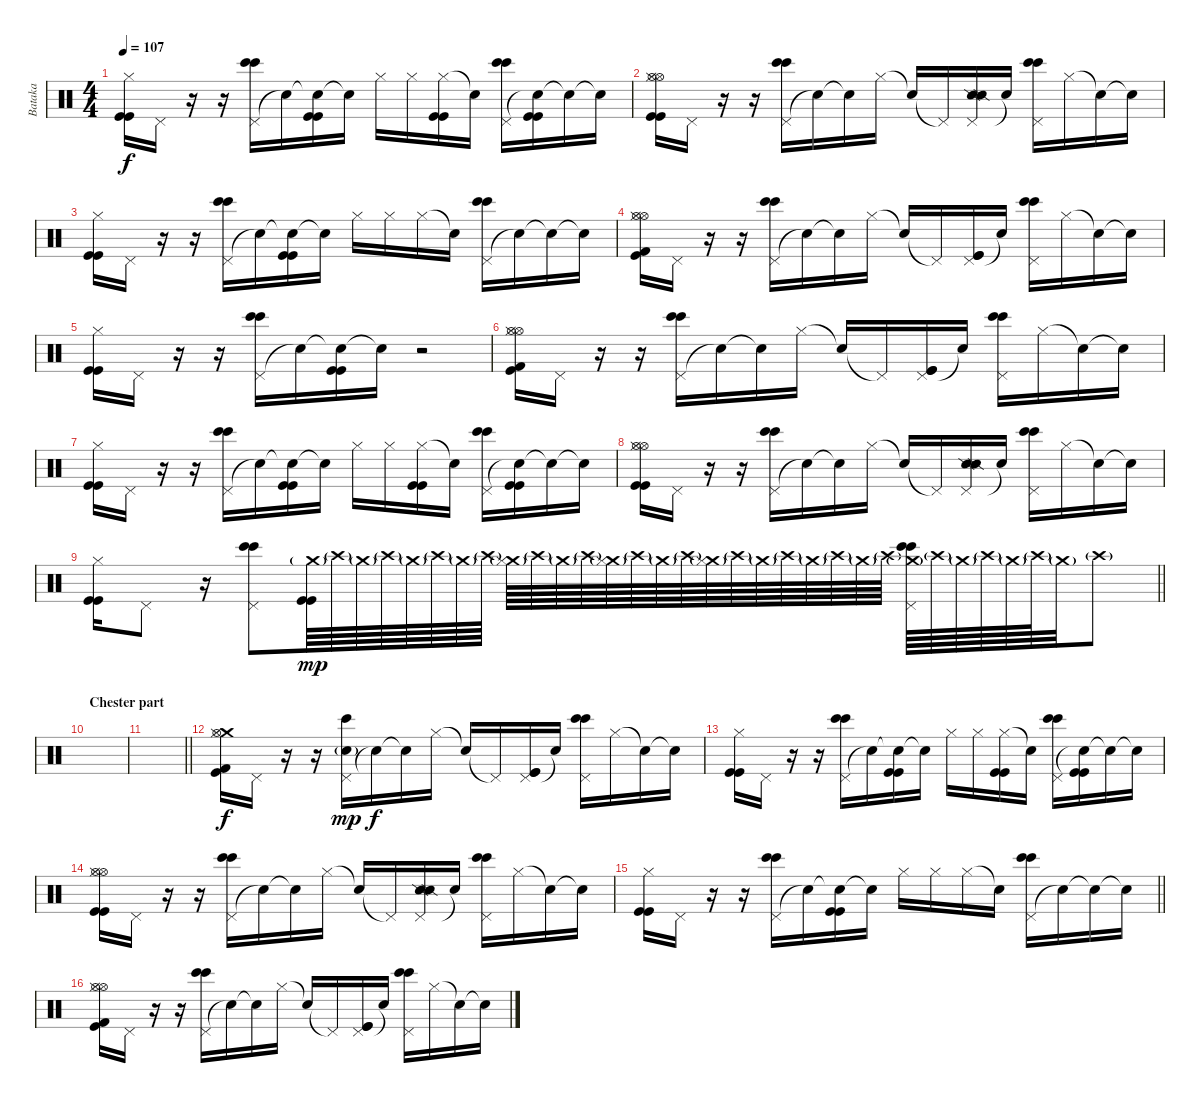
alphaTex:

\track ("Bataka" "Bataka") {instrument percussion}
\staff {score}
\articulation defaults
\ts (4 4)
\tempo 107
\clef neutral
\ks c
("Hi-Hat (closed)" "Kick (hit)" "Kick (hit)").16{dy f} "Pedal Hi-Hat (hit)".16 r.16 r.16 ("Pedal Hi-Hat (hit)" "Bongo High (hit)" "Bongo High (hit)").16 "Snare (hit)"{t}.16 ("Snare (hit)"{t} "Kick (hit)" "Kick (hit)").16 "Snare (hit)"{t}.16 "Hi-Hat (closed)".16 "Hi-Hat (closed)".16 ("Hi-Hat (closed)" "Kick (hit)" "Kick (hit)").16 "Snare (hit)"{t}.16 ("Pedal Hi-Hat (hit)" "Bongo High (hit)" "Bongo High (hit)").16 ("Snare (hit)"{t} "Kick (hit)" "Kick (hit)").16 "Snare (hit)"{t}.16 "Snare (hit)"{t}.16 |
("Hi-Hat (open)" "Hi-Hat (open)" "Hi-Hat (closed)" "Kick (hit)" "Kick (hit)").16 "Pedal Hi-Hat (hit)".16 r.16 r.16 ("Pedal Hi-Hat (hit)" "Bongo High (hit)" "Bongo High (hit)").16 "Snare (hit)"{t}.16 "Snare (hit)"{t}.16 "Hi-Hat (closed)".16 "Snare (hit)"{t}.16 "Pedal Hi-Hat (hit)"{t}.16 ("Pedal Hi-Hat (hit)" "Snare (side stick) 2" "Snare (side stick) 2").16 "Snare (hit)"{t}.16 ("Pedal Hi-Hat (hit)" "Bongo High (hit)" "Bongo High (hit)").16 "Hi-Hat (closed)".16 "Snare (hit)"{t}.16 "Snare (hit)"{t}.16 |
("Hi-Hat (closed)" "Kick (hit)" "Kick (hit)").16 "Pedal Hi-Hat (hit)".16 r.16 r.16 ("Pedal Hi-Hat (hit)" "Bongo High (hit)" "Bongo High (hit)").16 "Snare (hit)"{t}.16 ("Snare (hit)"{t} "Kick (hit)" "Kick (hit)").16 "Snare (hit)"{t}.16 "Hi-Hat (closed)".16 "Hi-Hat (closed)".16 "Hi-Hat (closed)".16 "Snare (hit)"{t}.16 ("Pedal Hi-Hat (hit)" "Bongo High (hit)" "Bongo High (hit)").16 "Snare (hit)"{t}.16 "Snare (hit)"{t}.16 "Snare (hit)"{t}.16 |
("Hi-Hat (open)" "Hi-Hat (open)" "Hi-Hat (closed)" "Kick (hit)" "Kick (hit) 2").16 "Pedal Hi-Hat (hit)".16 r.16 r.16 ("Pedal Hi-Hat (hit)" "Bongo High (hit)" "Bongo High (hit)").16 "Snare (hit)"{t}.16 "Snare (hit)"{t}.16 "Hi-Hat (closed)".16 "Snare (hit)"{t}.16 "Pedal Hi-Hat (hit)"{t}.16 ("Pedal Hi-Hat (hit)" "Kick (hit)" "Kick (hit)").16 "Snare (hit)"{t}.16 ("Pedal Hi-Hat (hit)" "Bongo High (hit)" "Bongo High (hit)").16 "Hi-Hat (closed)".16 "Snare (hit)"{t}.16 "Snare (hit)"{t}.16 |
("Hi-Hat (closed)" "Kick (hit)" "Kick (hit)").16 "Pedal Hi-Hat (hit)".16 r.16 r.16 ("Pedal Hi-Hat (hit)" "Bongo High (hit)" "Bongo High (hit)").16 "Snare (hit)"{t}.16 ("Snare (hit)"{t} "Kick (hit)" "Kick (hit)").16 "Snare (hit)"{t}.16 r.2 |
("Hi-Hat (open)" "Hi-Hat (open)" "Hi-Hat (closed)" "Kick (hit)" "Kick (hit) 2").16 "Pedal Hi-Hat (hit)".16 r.16 r.16 ("Pedal Hi-Hat (hit)" "Bongo High (hit)" "Bongo High (hit)").16 "Snare (hit)"{t}.16 "Snare (hit)"{t}.16 "Hi-Hat (closed)".16 "Snare (hit)"{t}.16 "Pedal Hi-Hat (hit)"{t}.16 ("Pedal Hi-Hat (hit)" "Kick (hit)" "Kick (hit)").16 "Snare (hit)"{t}.16 ("Pedal Hi-Hat (hit)" "Bongo High (hit)" "Bongo High (hit)").16 "Hi-Hat (closed)".16 "Snare (hit)"{t}.16 "Snare (hit)"{t}.16 |
("Hi-Hat (closed)" "Kick (hit)" "Kick (hit)").16 "Pedal Hi-Hat (hit)".16 r.16 r.16 ("Pedal Hi-Hat (hit)" "Bongo High (hit)" "Bongo High (hit)").16 "Snare (hit)"{t}.16 ("Snare (hit)"{t} "Kick (hit)" "Kick (hit)").16 "Snare (hit)"{t}.16 "Hi-Hat (closed)".16 "Hi-Hat (closed)".16 ("Hi-Hat (closed)" "Kick (hit)" "Kick (hit)").16 "Snare (hit)"{t}.16 ("Pedal Hi-Hat (hit)" "Bongo High (hit)" "Bongo High (hit)").16 ("Snare (hit)"{t} "Kick (hit)" "Kick (hit)").16 "Snare (hit)"{t}.16 "Snare (hit)"{t}.16 |
("Hi-Hat (open)" "Hi-Hat (open)" "Hi-Hat (closed)" "Kick (hit)" "Kick (hit)").16 "Pedal Hi-Hat (hit)".16 r.16 r.16 ("Pedal Hi-Hat (hit)" "Bongo High (hit)" "Bongo High (hit)").16 "Snare (hit)"{t}.16 "Snare (hit)"{t}.16 "Hi-Hat (closed)".16 "Snare (hit)"{t}.16 "Pedal Hi-Hat (hit)"{t}.16 ("Pedal Hi-Hat (hit)" "Snare (side stick) 2" "Snare (side stick) 2").16 "Snare (hit)"{t}.16 ("Pedal Hi-Hat (hit)" "Bongo High (hit)" "Bongo High (hit)").16 "Hi-Hat (closed)".16 "Snare (hit)"{t}.16 "Snare (hit)"{t}.16 |
\barLineRight lightlight
("Hi-Hat (closed)" "Kick (hit)" "Kick (hit)").16 "Pedal Hi-Hat (hit)".8 r.16 ("Pedal Hi-Hat (hit)" "Bongo High (hit)" "Bongo High (hit)").8 ("Crash medium (hit)"{g} "Kick (hit)" "Kick (hit)").64{dy mp} "Crash high (hit)"{g}.64 "Crash medium (hit)"{g}.64 "Crash high (hit)"{g}.64 "Crash medium (hit)"{g}.64 "Crash high (hit)"{g}.64 "Crash medium (hit)"{g}.64 "Crash high (hit)"{g}.64 ("Crash medium (hit)"{g} "Hi-Hat (closed)").64 "Crash high (hit)"{g}.64 "Crash medium (hit)"{g}.64 "Crash high (hit)"{g}.64 ("Crash medium (hit)"{g} "Hi-Hat (closed)").64 "Crash high (hit)"{g}.64 "Crash medium (hit)"{g}.64 "Crash high (hit)"{g}.64 ("Crash medium (hit)"{g} "Hi-Hat (closed)").64 "Crash high (hit)"{g}.64 "Crash medium (hit)"{g}.64 "Crash high (hit)"{g}.64 "Crash medium (hit)"{g}.64 "Crash high (hit)"{g}.64 "Crash medium (hit)"{g}.64 "Crash high (hit)"{g}.64 ("Crash medium (hit)"{g} "Pedal Hi-Hat (hit)" "Bongo High (hit)" "Bongo High (hit)").64 "Crash high (hit)"{g}.64 "Crash medium (hit)"{g}.64 "Crash high (hit)"{g}.64 "Crash medium (hit)"{g}.64 "Crash high (hit)"{g}.64 "Crash medium (hit)"{g}.32 "Crash high (hit)"{g}.8 |
\section ("" "Chester part")
|
\barLineRight lightlight
|
("Crash medium (hit)" "Hi-Hat (open)" "Hi-Hat (closed)" "Kick (hit)" "Kick (hit) 2").16{dy f} "Pedal Hi-Hat (hit)".16 r.16 r.16 ("Pedal Hi-Hat (hit)" "Bongo High (hit)" "Electric Snare (hit)"{g}).16{dy mp} "Snare (hit)"{t}.16{dy f} "Snare (hit)"{t}.16 "Hi-Hat (closed)".16 "Snare (hit)"{t}.16 "Pedal Hi-Hat (hit)"{t}.16 ("Pedal Hi-Hat (hit)" "Kick (hit)" "Kick (hit)").16 "Snare (hit)"{t}.16 ("Pedal Hi-Hat (hit)" "Bongo High (hit)" "Bongo High (hit)").16 "Hi-Hat (closed)".16 "Snare (hit)"{t}.16 "Snare (hit)"{t}.16 |
("Hi-Hat (closed)" "Kick (hit)" "Kick (hit)").16 "Pedal Hi-Hat (hit)".16 r.16 r.16 ("Pedal Hi-Hat (hit)" "Bongo High (hit)" "Bongo High (hit)").16 "Snare (hit)"{t}.16 ("Snare (hit)"{t} "Kick (hit)" "Kick (hit)").16 "Snare (hit)"{t}.16 "Hi-Hat (closed)".16 "Hi-Hat (closed)".16 ("Hi-Hat (closed)" "Kick (hit)" "Kick (hit)").16 "Snare (hit)"{t}.16 ("Pedal Hi-Hat (hit)" "Bongo High (hit)" "Bongo High (hit)").16 ("Snare (hit)"{t} "Kick (hit)" "Kick (hit)").16 "Snare (hit)"{t}.16 "Snare (hit)"{t}.16 |
("Hi-Hat (open)" "Hi-Hat (open)" "Hi-Hat (closed)" "Kick (hit)" "Kick (hit)").16 "Pedal Hi-Hat (hit)".16 r.16 r.16 ("Pedal Hi-Hat (hit)" "Bongo High (hit)" "Bongo High (hit)").16 "Snare (hit)"{t}.16 "Snare (hit)"{t}.16 "Hi-Hat (closed)".16 "Snare (hit)"{t}.16 "Pedal Hi-Hat (hit)"{t}.16 ("Pedal Hi-Hat (hit)" "Snare (side stick) 2" "Snare (side stick) 2").16 "Snare (hit)"{t}.16 ("Pedal Hi-Hat (hit)" "Bongo High (hit)" "Bongo High (hit)").16 "Hi-Hat (closed)".16 "Snare (hit)"{t}.16 "Snare (hit)"{t}.16 |
\barLineRight lightlight
("Hi-Hat (closed)" "Kick (hit)" "Kick (hit)").16 "Pedal Hi-Hat (hit)".16 r.16 r.16 ("Pedal Hi-Hat (hit)" "Bongo High (hit)" "Bongo High (hit)").16 "Snare (hit)"{t}.16 ("Snare (hit)"{t} "Kick (hit)" "Kick (hit)").16 "Snare (hit)"{t}.16 "Hi-Hat (closed)".16 "Hi-Hat (closed)".16 "Hi-Hat (closed)".16 "Snare (hit)"{t}.16 ("Pedal Hi-Hat (hit)" "Bongo High (hit)" "Bongo High (hit)").16 "Snare (hit)"{t}.16 "Snare (hit)"{t}.16 "Snare (hit)"{t}.16 |
("Hi-Hat (open)" "Hi-Hat (open)" "Hi-Hat (closed)" "Kick (hit)" "Kick (hit) 2").16 "Pedal Hi-Hat (hit)".16 r.16 r.16 ("Pedal Hi-Hat (hit)" "Bongo High (hit)" "Bongo High (hit)").16 "Snare (hit)"{t}.16 "Snare (hit)"{t}.16 "Hi-Hat (closed)".16 "Snare (hit)"{t}.16 "Pedal Hi-Hat (hit)"{t}.16 ("Pedal Hi-Hat (hit)" "Kick (hit)" "Kick (hit)").16 "Snare (hit)"{t}.16 ("Pedal Hi-Hat (hit)" "Bongo High (hit)" "Bongo High (hit)").16 "Hi-Hat (closed)".16 "Snare (hit)"{t}.16 "Snare (hit)"{t}.16
